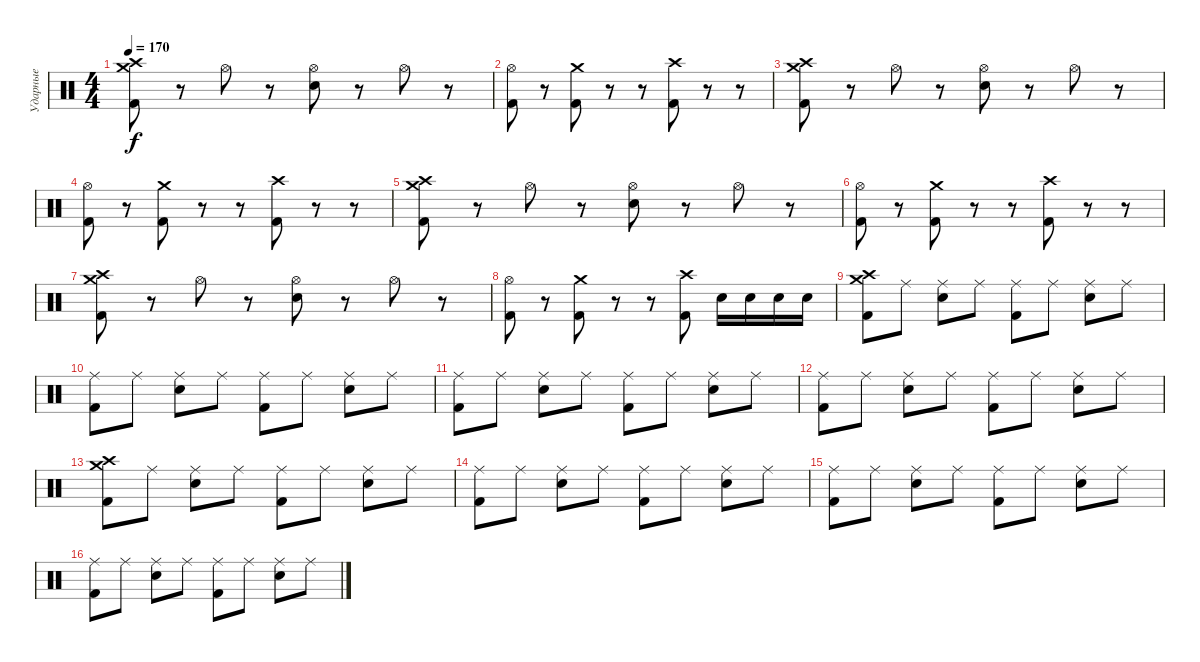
\track ("Ударные" "Ударные") {instrument percussion}
\staff {score}
\articulation defaults
\ts (4 4)
\tempo 170
\clef neutral
\ks c
("Crash medium (hit)" "Crash high (hit)" "Kick (hit) 2").8{dy f} r.8 "Hi-Hat (open)".8 r.8 ("Hi-Hat (open)" "Electric Snare (hit)").8 r.8 "Hi-Hat (open)".8 r.8 |
("Hi-Hat (open)" "Kick (hit) 2").8 r.8 ("Crash medium (hit)" "Kick (hit) 2").8 r.8 r.8 ("Crash high (hit)" "Kick (hit) 2").8 r.8 r.8 |
("Crash medium (hit)" "Crash high (hit)" "Kick (hit) 2").8 r.8 "Hi-Hat (open)".8 r.8 ("Hi-Hat (open)" "Electric Snare (hit)").8 r.8 "Hi-Hat (open)".8 r.8 |
("Hi-Hat (open)" "Kick (hit) 2").8 r.8 ("Crash medium (hit)" "Kick (hit) 2").8 r.8 r.8 ("Crash high (hit)" "Kick (hit) 2").8 r.8 r.8 |
("Crash medium (hit)" "Crash high (hit)" "Kick (hit) 2").8 r.8 "Hi-Hat (open)".8 r.8 ("Hi-Hat (open)" "Electric Snare (hit)").8 r.8 "Hi-Hat (open)".8 r.8 |
("Hi-Hat (open)" "Kick (hit) 2").8 r.8 ("Crash medium (hit)" "Kick (hit) 2").8 r.8 r.8 ("Crash high (hit)" "Kick (hit) 2").8 r.8 r.8 |
("Crash medium (hit)" "Crash high (hit)" "Kick (hit) 2").8 r.8 "Hi-Hat (open)".8 r.8 ("Hi-Hat (open)" "Electric Snare (hit)").8 r.8 "Hi-Hat (open)".8 r.8 |
("Hi-Hat (open)" "Kick (hit) 2").8 r.8 ("Crash medium (hit)" "Kick (hit) 2").8 r.8 r.8 ("Crash high (hit)" "Kick (hit) 2").8 "Electric Snare (hit)".16 "Electric Snare (hit)".16 "Electric Snare (hit)".16 "Electric Snare (hit)".16 |
("Crash medium (hit)" "Crash high (hit)" "Kick (hit) 2").8 "Ride (middle)".8 ("Ride (middle)" "Electric Snare (hit)").8 "Ride (middle)".8 ("Ride (middle)" "Kick (hit) 2").8 "Ride (middle)".8 ("Ride (middle)" "Electric Snare (hit)").8 "Ride (middle)".8 |
("Ride (middle)" "Kick (hit) 2").8 "Ride (middle)".8 ("Ride (middle)" "Electric Snare (hit)").8 "Ride (middle)".8 ("Ride (middle)" "Kick (hit) 2").8 "Ride (middle)".8 ("Ride (middle)" "Electric Snare (hit)").8 "Ride (middle)".8 |
("Ride (middle)" "Kick (hit) 2").8 "Ride (middle)".8 ("Ride (middle)" "Electric Snare (hit)").8 "Ride (middle)".8 ("Ride (middle)" "Kick (hit) 2").8 "Ride (middle)".8 ("Ride (middle)" "Electric Snare (hit)").8 "Ride (middle)".8 |
("Ride (middle)" "Kick (hit) 2").8 "Ride (middle)".8 ("Ride (middle)" "Electric Snare (hit)").8 "Ride (middle)".8 ("Ride (middle)" "Kick (hit) 2").8 "Ride (middle)".8 ("Ride (middle)" "Electric Snare (hit)").8 "Ride (middle)".8 |
("Crash medium (hit)" "Crash high (hit)" "Kick (hit) 2").8 "Ride (middle)".8 ("Ride (middle)" "Electric Snare (hit)").8 "Ride (middle)".8 ("Ride (middle)" "Kick (hit) 2").8 "Ride (middle)".8 ("Ride (middle)" "Electric Snare (hit)").8 "Ride (middle)".8 |
("Ride (middle)" "Kick (hit) 2").8 "Ride (middle)".8 ("Ride (middle)" "Electric Snare (hit)").8 "Ride (middle)".8 ("Ride (middle)" "Kick (hit) 2").8 "Ride (middle)".8 ("Ride (middle)" "Electric Snare (hit)").8 "Ride (middle)".8 |
("Ride (middle)" "Kick (hit) 2").8 "Ride (middle)".8 ("Ride (middle)" "Electric Snare (hit)").8 "Ride (middle)".8 ("Ride (middle)" "Kick (hit) 2").8 "Ride (middle)".8 ("Ride (middle)" "Electric Snare (hit)").8 "Ride (middle)".8 |
("Ride (middle)" "Kick (hit) 2").8 "Ride (middle)".8 ("Ride (middle)" "Electric Snare (hit)").8 "Ride (middle)".8 ("Ride (middle)" "Kick (hit) 2").8 "Ride (middle)".8 ("Ride (middle)" "Electric Snare (hit)").8 "Ride (middle)".8
